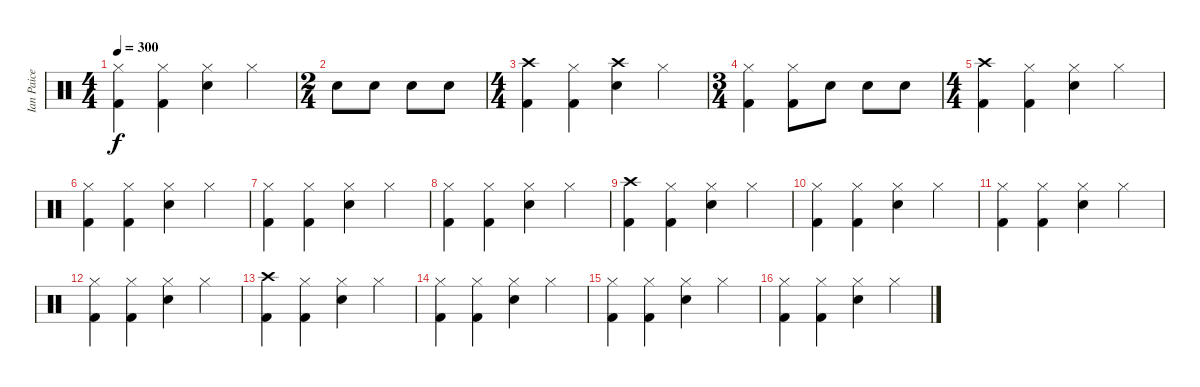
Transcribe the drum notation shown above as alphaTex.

\track ("Ian Paice" "Ian Paice") {instrument percussion}
\staff {score}
\articulation defaults
\ts (4 4)
\tempo 300
\clef neutral
\ks c
("Hi-Hat (closed)" "Kick (hit) 2").4{dy f} ("Hi-Hat (closed)" "Kick (hit) 2").4 ("Hi-Hat (closed)" "Electric Snare (hit)").4 "Hi-Hat (closed)".4 |
\ts (2 4)
"Electric Snare (hit)".8 "Electric Snare (hit)".8 "Electric Snare (hit)".8 "Electric Snare (hit)".8 |
\ts (4 4)
("Crash high (hit)" "Kick (hit) 2").4 ("Hi-Hat (closed)" "Kick (hit) 2").4 ("Crash high (hit)" "Electric Snare (hit)").4 "Hi-Hat (closed)".4 |
\ts (3 4)
("Hi-Hat (closed)" "Kick (hit) 2").4 ("Hi-Hat (closed)" "Kick (hit) 2").8 "Electric Snare (hit)".8 "Electric Snare (hit)".8 "Electric Snare (hit)".8 |
\ts (4 4)
("Crash high (hit)" "Kick (hit) 2").4 ("Hi-Hat (closed)" "Kick (hit) 2").4 ("Hi-Hat (closed)" "Electric Snare (hit)").4 "Hi-Hat (closed)".4 |
("Hi-Hat (closed)" "Kick (hit) 2").4 ("Hi-Hat (closed)" "Kick (hit) 2").4 ("Hi-Hat (closed)" "Electric Snare (hit)").4 "Hi-Hat (closed)".4 |
("Hi-Hat (closed)" "Kick (hit) 2").4 ("Hi-Hat (closed)" "Kick (hit) 2").4 ("Hi-Hat (closed)" "Electric Snare (hit)").4 "Hi-Hat (closed)".4 |
("Hi-Hat (closed)" "Kick (hit) 2").4 ("Hi-Hat (closed)" "Kick (hit) 2").4 ("Hi-Hat (closed)" "Electric Snare (hit)").4 "Hi-Hat (closed)".4 |
("Crash high (hit)" "Kick (hit) 2").4 ("Hi-Hat (closed)" "Kick (hit) 2").4 ("Hi-Hat (closed)" "Electric Snare (hit)").4 "Hi-Hat (closed)".4 |
("Hi-Hat (closed)" "Kick (hit) 2").4 ("Hi-Hat (closed)" "Kick (hit) 2").4 ("Hi-Hat (closed)" "Electric Snare (hit)").4 "Hi-Hat (closed)".4 |
("Hi-Hat (closed)" "Kick (hit) 2").4 ("Hi-Hat (closed)" "Kick (hit) 2").4 ("Hi-Hat (closed)" "Electric Snare (hit)").4 "Hi-Hat (closed)".4 |
("Hi-Hat (closed)" "Kick (hit) 2").4 ("Hi-Hat (closed)" "Kick (hit) 2").4 ("Hi-Hat (closed)" "Electric Snare (hit)").4 "Hi-Hat (closed)".4 |
("Crash high (hit)" "Kick (hit) 2").4 ("Hi-Hat (closed)" "Kick (hit) 2").4 ("Hi-Hat (closed)" "Electric Snare (hit)").4 "Hi-Hat (closed)".4 |
("Hi-Hat (closed)" "Kick (hit) 2").4 ("Hi-Hat (closed)" "Kick (hit) 2").4 ("Hi-Hat (closed)" "Electric Snare (hit)").4 "Hi-Hat (closed)".4 |
("Hi-Hat (closed)" "Kick (hit) 2").4 ("Hi-Hat (closed)" "Kick (hit) 2").4 ("Hi-Hat (closed)" "Electric Snare (hit)").4 "Hi-Hat (closed)".4 |
("Hi-Hat (closed)" "Kick (hit) 2").4 ("Hi-Hat (closed)" "Kick (hit) 2").4 ("Hi-Hat (closed)" "Electric Snare (hit)").4 "Hi-Hat (closed)".4
